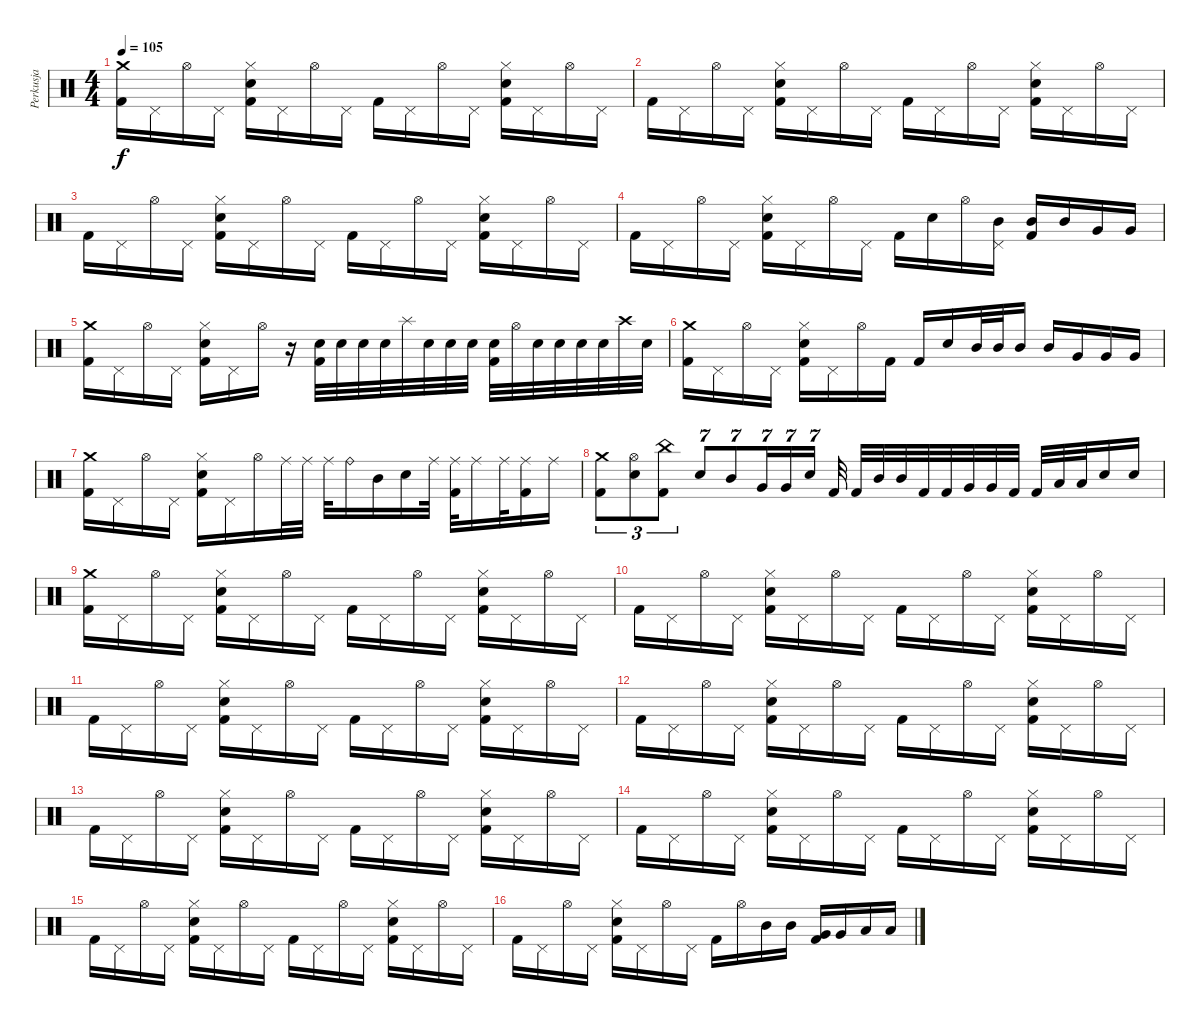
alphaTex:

\track ("Perkusja" "Perkusja") {instrument percussion}
\staff {score}
\articulation defaults
\ts (4 4)
\tempo 105
\clef neutral
\ks c
("Crash medium (hit)" "Kick (hit) 2").16{dy f} "Pedal Hi-Hat (hit)".16 "Hi-Hat (open)".16 "Pedal Hi-Hat (hit)".16 ("Hi-Hat (closed)" "Electric Snare (hit)" "Kick (hit) 2").16 "Pedal Hi-Hat (hit)".16 "Hi-Hat (open)".16 "Pedal Hi-Hat (hit)".16 "Kick (hit) 2".16 "Pedal Hi-Hat (hit)".16 "Hi-Hat (open)".16 "Pedal Hi-Hat (hit)".16 ("Hi-Hat (closed)" "Electric Snare (hit)" "Kick (hit) 2").16 "Pedal Hi-Hat (hit)".16 "Hi-Hat (open)".16 "Pedal Hi-Hat (hit)".16 |
"Kick (hit) 2".16 "Pedal Hi-Hat (hit)".16 "Hi-Hat (open)".16 "Pedal Hi-Hat (hit)".16 ("Hi-Hat (closed)" "Electric Snare (hit)" "Kick (hit) 2").16 "Pedal Hi-Hat (hit)".16 "Hi-Hat (open)".16 "Pedal Hi-Hat (hit)".16 "Kick (hit) 2".16 "Pedal Hi-Hat (hit)".16 "Hi-Hat (open)".16 "Pedal Hi-Hat (hit)".16 ("Hi-Hat (closed)" "Electric Snare (hit)" "Kick (hit) 2").16 "Pedal Hi-Hat (hit)".16 "Hi-Hat (open)".16 "Pedal Hi-Hat (hit)".16 |
"Kick (hit) 2".16 "Pedal Hi-Hat (hit)".16 "Hi-Hat (open)".16 "Pedal Hi-Hat (hit)".16 ("Hi-Hat (closed)" "Electric Snare (hit)" "Kick (hit) 2").16 "Pedal Hi-Hat (hit)".16 "Hi-Hat (open)".16 "Pedal Hi-Hat (hit)".16 "Kick (hit) 2".16 "Pedal Hi-Hat (hit)".16 "Hi-Hat (open)".16 "Pedal Hi-Hat (hit)".16 ("Hi-Hat (closed)" "Electric Snare (hit)" "Kick (hit) 2").16 "Pedal Hi-Hat (hit)".16 "Hi-Hat (open)".16 "Pedal Hi-Hat (hit)".16 |
"Kick (hit) 2".16 "Pedal Hi-Hat (hit)".16 "Hi-Hat (open)".16 "Pedal Hi-Hat (hit)".16 ("Hi-Hat (closed)" "Electric Snare (hit)" "Kick (hit) 2").16 "Pedal Hi-Hat (hit)".16 "Hi-Hat (open)".16 "Pedal Hi-Hat (hit)".16 "Kick (hit) 2".16 "Electric Snare (hit)".16 "Hi-Hat (open)".16 ("Pedal Hi-Hat (hit)" "Mid Tom (hit)").16 ("Mid Tom (hit)" "Kick (hit) 2").16 "Mid Tom (hit)".16 "Very Low Tom (hit)".16 "Very Low Tom (hit)".16 |
("Crash medium (hit)" "Kick (hit) 2").16 "Pedal Hi-Hat (hit)".16 "Hi-Hat (open)".16 "Pedal Hi-Hat (hit)".16 ("Hi-Hat (closed)" "Electric Snare (hit)" "Kick (hit) 2").16 "Pedal Hi-Hat (hit)".16 "Hi-Hat (open)".16 r.16 ("Electric Snare (hit)" "Kick (hit) 2").32 "Electric Snare (hit)".32 "Electric Snare (hit)".32 "Electric Snare (hit)".32 "Splash (hit)".32 "Electric Snare (hit)".32 "Electric Snare (hit)".32 "Electric Snare (hit)".32 ("Electric Snare (hit)" "Kick (hit) 2").32 "Hi-Hat (open)".32 "Electric Snare (hit)".32 "Electric Snare (hit)".32 "Electric Snare (hit)".32 "Electric Snare (hit)".32 "Crash high (hit)".32 "Electric Snare (hit)".32 |
("Crash medium (hit)" "Kick (hit) 2").16 "Pedal Hi-Hat (hit)".16 "Hi-Hat (open)".16 "Pedal Hi-Hat (hit)".16 ("Hi-Hat (closed)" "Electric Snare (hit)" "Kick (hit) 2").16 "Pedal Hi-Hat (hit)".16 "Hi-Hat (open)".16 "Kick (hit) 2".16 "Kick (hit) 2".16 "Electric Snare (hit)".16 "Mid Tom (hit)".32 "Mid Tom (hit)".32 "Mid Tom (hit)".16 "Mid Tom (hit)".16 "Very Low Tom (hit)".16 "Very Low Tom (hit)".16 "Very Low Tom (hit)".16 |
("Crash medium (hit)" "Kick (hit) 2").16 "Pedal Hi-Hat (hit)".16 "Hi-Hat (open)".16 "Pedal Hi-Hat (hit)".16 ("Hi-Hat (closed)" "Electric Snare (hit)" "Kick (hit) 2").16 "Pedal Hi-Hat (hit)".16 "Hi-Hat (open)".16 "Ride (middle)".32 "Ride (middle)".32 "Ride (middle)".32 "Ride (bell)".16 "Mid Tom (hit)".16 "Electric Snare (hit)".16 "Ride (middle)".32 ("Ride (middle)" "Kick (hit) 2").32 "Ride (middle)".16 "Ride (middle)".32 ("Ride (middle)" "Kick (hit) 2").16 "Ride (middle)".16 |
("Crash medium (hit)" "Kick (hit) 2").8{tu (3 2)} ("Hi-Hat (open)" "Electric Snare (hit)").8{tu (3 2)} ("China (hit)" "Kick (hit) 2").8{tu (3 2)} "Electric Snare (hit)".8{tu (7 4)} "Mid Tom (hit)".8{tu (7 4)} "Very Low Tom (hit)".16{tu (7 4)} "Very Low Tom (hit)".16{tu (7 4)} "Electric Snare (hit)".16{tu (7 4)} "Kick (hit) 2".32 "Kick (hit) 2".32 "Mid Tom (hit)".32 "Mid Tom (hit)".32 "Kick (hit) 2".32 "Kick (hit) 2".32 "Very Low Tom (hit)".32 "Very Low Tom (hit)".32 "Kick (hit) 2".32 "Kick (hit) 2".32 "Low Floor Tom (hit)".32 "Low Floor Tom (hit)".32 "Electric Snare (hit)".16 "Electric Snare (hit)".16 |
("Crash medium (hit)" "Kick (hit) 2").16 "Pedal Hi-Hat (hit)".16 "Hi-Hat (open)".16 "Pedal Hi-Hat (hit)".16 ("Hi-Hat (closed)" "Electric Snare (hit)" "Kick (hit) 2").16 "Pedal Hi-Hat (hit)".16 "Hi-Hat (open)".16 "Pedal Hi-Hat (hit)".16 "Kick (hit) 2".16 "Pedal Hi-Hat (hit)".16 "Hi-Hat (open)".16 "Pedal Hi-Hat (hit)".16 ("Hi-Hat (closed)" "Electric Snare (hit)" "Kick (hit) 2").16 "Pedal Hi-Hat (hit)".16 "Hi-Hat (open)".16 "Pedal Hi-Hat (hit)".16 |
"Kick (hit) 2".16 "Pedal Hi-Hat (hit)".16 "Hi-Hat (open)".16 "Pedal Hi-Hat (hit)".16 ("Hi-Hat (closed)" "Electric Snare (hit)" "Kick (hit) 2").16 "Pedal Hi-Hat (hit)".16 "Hi-Hat (open)".16 "Pedal Hi-Hat (hit)".16 "Kick (hit) 2".16 "Pedal Hi-Hat (hit)".16 "Hi-Hat (open)".16 "Pedal Hi-Hat (hit)".16 ("Hi-Hat (closed)" "Electric Snare (hit)" "Kick (hit) 2").16 "Pedal Hi-Hat (hit)".16 "Hi-Hat (open)".16 "Pedal Hi-Hat (hit)".16 |
"Kick (hit) 2".16 "Pedal Hi-Hat (hit)".16 "Hi-Hat (open)".16 "Pedal Hi-Hat (hit)".16 ("Hi-Hat (closed)" "Electric Snare (hit)" "Kick (hit) 2").16 "Pedal Hi-Hat (hit)".16 "Hi-Hat (open)".16 "Pedal Hi-Hat (hit)".16 "Kick (hit) 2".16 "Pedal Hi-Hat (hit)".16 "Hi-Hat (open)".16 "Pedal Hi-Hat (hit)".16 ("Hi-Hat (closed)" "Electric Snare (hit)" "Kick (hit) 2").16 "Pedal Hi-Hat (hit)".16 "Hi-Hat (open)".16 "Pedal Hi-Hat (hit)".16 |
"Kick (hit) 2".16 "Pedal Hi-Hat (hit)".16 "Hi-Hat (open)".16 "Pedal Hi-Hat (hit)".16 ("Hi-Hat (closed)" "Electric Snare (hit)" "Kick (hit) 2").16 "Pedal Hi-Hat (hit)".16 "Hi-Hat (open)".16 "Pedal Hi-Hat (hit)".16 "Kick (hit) 2".16 "Pedal Hi-Hat (hit)".16 "Hi-Hat (open)".16 "Pedal Hi-Hat (hit)".16 ("Hi-Hat (closed)" "Electric Snare (hit)" "Kick (hit) 2").16 "Pedal Hi-Hat (hit)".16 "Hi-Hat (open)".16 "Pedal Hi-Hat (hit)".16 |
"Kick (hit) 2".16 "Pedal Hi-Hat (hit)".16 "Hi-Hat (open)".16 "Pedal Hi-Hat (hit)".16 ("Hi-Hat (closed)" "Electric Snare (hit)" "Kick (hit) 2").16 "Pedal Hi-Hat (hit)".16 "Hi-Hat (open)".16 "Pedal Hi-Hat (hit)".16 "Kick (hit) 2".16 "Pedal Hi-Hat (hit)".16 "Hi-Hat (open)".16 "Pedal Hi-Hat (hit)".16 ("Hi-Hat (closed)" "Electric Snare (hit)" "Kick (hit) 2").16 "Pedal Hi-Hat (hit)".16 "Hi-Hat (open)".16 "Pedal Hi-Hat (hit)".16 |
"Kick (hit) 2".16 "Pedal Hi-Hat (hit)".16 "Hi-Hat (open)".16 "Pedal Hi-Hat (hit)".16 ("Hi-Hat (closed)" "Electric Snare (hit)" "Kick (hit) 2").16 "Pedal Hi-Hat (hit)".16 "Hi-Hat (open)".16 "Pedal Hi-Hat (hit)".16 "Kick (hit) 2".16 "Pedal Hi-Hat (hit)".16 "Hi-Hat (open)".16 "Pedal Hi-Hat (hit)".16 ("Hi-Hat (closed)" "Electric Snare (hit)" "Kick (hit) 2").16 "Pedal Hi-Hat (hit)".16 "Hi-Hat (open)".16 "Pedal Hi-Hat (hit)".16 |
"Kick (hit) 2".16 "Pedal Hi-Hat (hit)".16 "Hi-Hat (open)".16 "Pedal Hi-Hat (hit)".16 ("Hi-Hat (closed)" "Electric Snare (hit)" "Kick (hit) 2").16 "Pedal Hi-Hat (hit)".16 "Hi-Hat (open)".16 "Pedal Hi-Hat (hit)".16 "Kick (hit) 2".16 "Pedal Hi-Hat (hit)".16 "Hi-Hat (open)".16 "Pedal Hi-Hat (hit)".16 ("Hi-Hat (closed)" "Electric Snare (hit)" "Kick (hit) 2").16 "Pedal Hi-Hat (hit)".16 "Hi-Hat (open)".16 "Pedal Hi-Hat (hit)".16 |
"Kick (hit) 2".16 "Pedal Hi-Hat (hit)".16 "Hi-Hat (open)".16 "Pedal Hi-Hat (hit)".16 ("Hi-Hat (closed)" "Electric Snare (hit)" "Kick (hit) 2").16 "Pedal Hi-Hat (hit)".16 "Hi-Hat (open)".16 "Pedal Hi-Hat (hit)".16 "Kick (hit) 2".16 "Hi-Hat (open)".16 "Mid Tom (hit)".16 "Mid Tom (hit)".16 ("Very Low Tom (hit)" "Kick (hit) 2").16 "Very Low Tom (hit)".16 "Low Floor Tom (hit)".16 "Low Floor Tom (hit)".16
